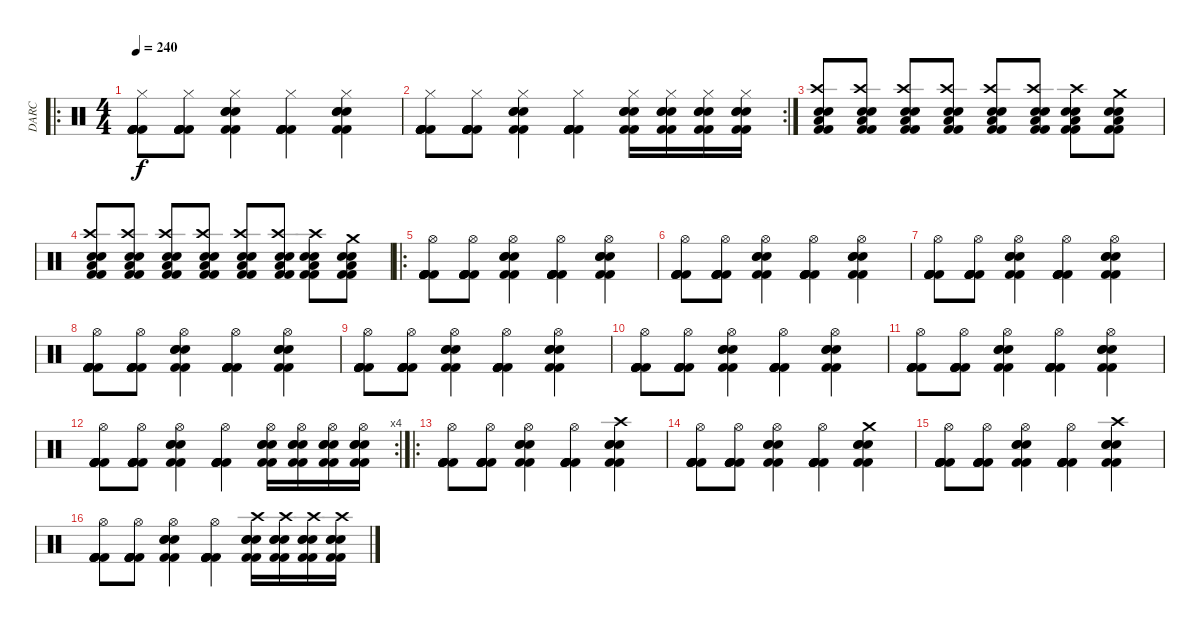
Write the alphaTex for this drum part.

\track ("DARC" "DARC") {instrument percussion}
\staff {score}
\articulation defaults
\ro
\ts (4 4)
\tempo 240
\clef neutral
\ks c
("Hi-Hat (closed)" "Kick (hit) 2" "Kick (hit) 2" "Kick (hit) 2" "Kick (hit) 2" "Kick (hit) 2").8{dy f} ("Hi-Hat (closed)" "Kick (hit) 2" "Kick (hit) 2" "Kick (hit) 2" "Kick (hit) 2" "Kick (hit) 2").8 ("Hi-Hat (closed)" "Electric Snare (hit)" "Electric Snare (hit)" "Kick (hit) 2" "Kick (hit) 2" "Electric Snare (hit)").4 ("Hi-Hat (closed)" "Kick (hit) 2" "Kick (hit) 2" "Kick (hit) 2" "Kick (hit) 2" "Kick (hit) 2").4 ("Hi-Hat (closed)" "Electric Snare (hit)" "Electric Snare (hit)" "Kick (hit) 2" "Kick (hit) 2" "Electric Snare (hit)").4 |
\rc 2
("Hi-Hat (closed)" "Kick (hit) 2" "Kick (hit) 2" "Kick (hit) 2" "Kick (hit) 2" "Kick (hit) 2").8 ("Hi-Hat (closed)" "Kick (hit) 2" "Kick (hit) 2" "Kick (hit) 2" "Kick (hit) 2" "Kick (hit) 2").8 ("Hi-Hat (closed)" "Electric Snare (hit)" "Electric Snare (hit)" "Kick (hit) 2" "Kick (hit) 2" "Electric Snare (hit)").4 ("Hi-Hat (closed)" "Kick (hit) 2" "Kick (hit) 2" "Kick (hit) 2" "Kick (hit) 2" "Kick (hit) 2").4 ("Hi-Hat (closed)" "Electric Snare (hit)" "Electric Snare (hit)" "Kick (hit) 2" "Kick (hit) 2" "Electric Snare (hit)").16 ("Hi-Hat (closed)" "Electric Snare (hit)" "Electric Snare (hit)" "Kick (hit) 2" "Kick (hit) 2" "Electric Snare (hit)").16 ("Hi-Hat (closed)" "Electric Snare (hit)" "Electric Snare (hit)" "Kick (hit) 2" "Kick (hit) 2" "Electric Snare (hit)").16 ("Hi-Hat (closed)" "Electric Snare (hit)" "Electric Snare (hit)" "Kick (hit) 2" "Kick (hit) 2" "Electric Snare (hit)").16 |
("Crash high (hit)" "Low Floor Tom (hit)" "Electric Snare (hit)" "Kick (hit) 2" "Kick (hit) 2" "Electric Snare (hit)").8 ("Crash high (hit)" "Low Floor Tom (hit)" "Electric Snare (hit)" "Kick (hit) 2" "Kick (hit) 2" "Electric Snare (hit)").8 ("Crash high (hit)" "Low Floor Tom (hit)" "Electric Snare (hit)" "Kick (hit) 2" "Kick (hit) 2" "Electric Snare (hit)").8 ("Crash high (hit)" "Low Floor Tom (hit)" "Electric Snare (hit)" "Kick (hit) 2" "Kick (hit) 2" "Electric Snare (hit)").8 ("Crash high (hit)" "Low Floor Tom (hit)" "Electric Snare (hit)" "Kick (hit) 2" "Kick (hit) 2" "Electric Snare (hit)").8 ("Crash high (hit)" "Low Floor Tom (hit)" "Electric Snare (hit)" "Kick (hit) 2" "Kick (hit) 2" "Electric Snare (hit)").8 ("Crash high (hit)" "Low Floor Tom (hit)" "Electric Snare (hit)" "Kick (hit) 2" "Kick (hit) 2" "Electric Snare (hit)").8 ("Crash medium (hit)" "Low Floor Tom (hit)" "Electric Snare (hit)" "Kick (hit) 2" "Kick (hit) 2" "Electric Snare (hit)").8 |
("Crash high (hit)" "Low Floor Tom (hit)" "Electric Snare (hit)" "Kick (hit) 2" "Kick (hit) 2" "Electric Snare (hit)").8 ("Crash high (hit)" "Low Floor Tom (hit)" "Electric Snare (hit)" "Kick (hit) 2" "Kick (hit) 2" "Electric Snare (hit)").8 ("Crash high (hit)" "Low Floor Tom (hit)" "Electric Snare (hit)" "Kick (hit) 2" "Kick (hit) 2" "Electric Snare (hit)").8 ("Crash high (hit)" "Low Floor Tom (hit)" "Electric Snare (hit)" "Kick (hit) 2" "Kick (hit) 2" "Electric Snare (hit)").8 ("Crash high (hit)" "Low Floor Tom (hit)" "Electric Snare (hit)" "Kick (hit) 2" "Kick (hit) 2" "Electric Snare (hit)").8 ("Crash high (hit)" "Low Floor Tom (hit)" "Electric Snare (hit)" "Kick (hit) 2" "Kick (hit) 2" "Electric Snare (hit)").8 ("Crash high (hit)" "Low Floor Tom (hit)" "Electric Snare (hit)" "Kick (hit) 2" "Kick (hit) 2" "Electric Snare (hit)").8 ("Crash medium (hit)" "Low Floor Tom (hit)" "Electric Snare (hit)" "Kick (hit) 2" "Kick (hit) 2" "Electric Snare (hit)").8 |
\ro
("Hi-Hat (open)" "Kick (hit) 2" "Kick (hit) 2" "Kick (hit) 2" "Kick (hit) 2" "Kick (hit) 2").8 ("Hi-Hat (open)" "Kick (hit) 2" "Kick (hit) 2" "Kick (hit) 2" "Kick (hit) 2" "Kick (hit) 2").8 ("Hi-Hat (open)" "Electric Snare (hit)" "Electric Snare (hit)" "Kick (hit) 2" "Kick (hit) 2" "Electric Snare (hit)").4 ("Hi-Hat (open)" "Kick (hit) 2" "Kick (hit) 2" "Kick (hit) 2" "Kick (hit) 2" "Kick (hit) 2").4 ("Hi-Hat (open)" "Electric Snare (hit)" "Electric Snare (hit)" "Kick (hit) 2" "Kick (hit) 2" "Electric Snare (hit)").4 |
("Hi-Hat (open)" "Kick (hit) 2" "Kick (hit) 2" "Kick (hit) 2" "Kick (hit) 2" "Kick (hit) 2").8 ("Hi-Hat (open)" "Kick (hit) 2" "Kick (hit) 2" "Kick (hit) 2" "Kick (hit) 2" "Kick (hit) 2").8 ("Hi-Hat (open)" "Electric Snare (hit)" "Electric Snare (hit)" "Kick (hit) 2" "Kick (hit) 2" "Electric Snare (hit)").4 ("Hi-Hat (open)" "Kick (hit) 2" "Kick (hit) 2" "Kick (hit) 2" "Kick (hit) 2" "Kick (hit) 2").4 ("Hi-Hat (open)" "Electric Snare (hit)" "Electric Snare (hit)" "Kick (hit) 2" "Kick (hit) 2" "Electric Snare (hit)").4 |
("Hi-Hat (open)" "Kick (hit) 2" "Kick (hit) 2" "Kick (hit) 2" "Kick (hit) 2" "Kick (hit) 2").8 ("Hi-Hat (open)" "Kick (hit) 2" "Kick (hit) 2" "Kick (hit) 2" "Kick (hit) 2" "Kick (hit) 2").8 ("Hi-Hat (open)" "Electric Snare (hit)" "Electric Snare (hit)" "Kick (hit) 2" "Kick (hit) 2" "Electric Snare (hit)").4 ("Hi-Hat (open)" "Kick (hit) 2" "Kick (hit) 2" "Kick (hit) 2" "Kick (hit) 2" "Kick (hit) 2").4 ("Hi-Hat (open)" "Electric Snare (hit)" "Electric Snare (hit)" "Kick (hit) 2" "Kick (hit) 2" "Electric Snare (hit)").4 |
("Hi-Hat (open)" "Kick (hit) 2" "Kick (hit) 2" "Kick (hit) 2" "Kick (hit) 2" "Kick (hit) 2").8 ("Hi-Hat (open)" "Kick (hit) 2" "Kick (hit) 2" "Kick (hit) 2" "Kick (hit) 2" "Kick (hit) 2").8 ("Hi-Hat (open)" "Electric Snare (hit)" "Electric Snare (hit)" "Kick (hit) 2" "Kick (hit) 2" "Electric Snare (hit)").4 ("Hi-Hat (open)" "Kick (hit) 2" "Kick (hit) 2" "Kick (hit) 2" "Kick (hit) 2" "Kick (hit) 2").4 ("Hi-Hat (open)" "Electric Snare (hit)" "Electric Snare (hit)" "Kick (hit) 2" "Kick (hit) 2" "Electric Snare (hit)").4 |
("Hi-Hat (open)" "Kick (hit) 2" "Kick (hit) 2" "Kick (hit) 2" "Kick (hit) 2" "Kick (hit) 2").8 ("Hi-Hat (open)" "Kick (hit) 2" "Kick (hit) 2" "Kick (hit) 2" "Kick (hit) 2" "Kick (hit) 2").8 ("Hi-Hat (open)" "Electric Snare (hit)" "Electric Snare (hit)" "Kick (hit) 2" "Kick (hit) 2" "Electric Snare (hit)").4 ("Hi-Hat (open)" "Kick (hit) 2" "Kick (hit) 2" "Kick (hit) 2" "Kick (hit) 2" "Kick (hit) 2").4 ("Hi-Hat (open)" "Electric Snare (hit)" "Electric Snare (hit)" "Kick (hit) 2" "Kick (hit) 2" "Electric Snare (hit)").4 |
("Hi-Hat (open)" "Kick (hit) 2" "Kick (hit) 2" "Kick (hit) 2" "Kick (hit) 2" "Kick (hit) 2").8 ("Hi-Hat (open)" "Kick (hit) 2" "Kick (hit) 2" "Kick (hit) 2" "Kick (hit) 2" "Kick (hit) 2").8 ("Hi-Hat (open)" "Electric Snare (hit)" "Electric Snare (hit)" "Kick (hit) 2" "Kick (hit) 2" "Electric Snare (hit)").4 ("Hi-Hat (open)" "Kick (hit) 2" "Kick (hit) 2" "Kick (hit) 2" "Kick (hit) 2" "Kick (hit) 2").4 ("Hi-Hat (open)" "Electric Snare (hit)" "Electric Snare (hit)" "Kick (hit) 2" "Kick (hit) 2" "Electric Snare (hit)").4 |
("Hi-Hat (open)" "Kick (hit) 2" "Kick (hit) 2" "Kick (hit) 2" "Kick (hit) 2" "Kick (hit) 2").8 ("Hi-Hat (open)" "Kick (hit) 2" "Kick (hit) 2" "Kick (hit) 2" "Kick (hit) 2" "Kick (hit) 2").8 ("Hi-Hat (open)" "Electric Snare (hit)" "Electric Snare (hit)" "Kick (hit) 2" "Kick (hit) 2" "Electric Snare (hit)").4 ("Hi-Hat (open)" "Kick (hit) 2" "Kick (hit) 2" "Kick (hit) 2" "Kick (hit) 2" "Kick (hit) 2").4 ("Hi-Hat (open)" "Electric Snare (hit)" "Electric Snare (hit)" "Kick (hit) 2" "Kick (hit) 2" "Electric Snare (hit)").4 |
\rc 4
("Hi-Hat (open)" "Kick (hit) 2" "Kick (hit) 2" "Kick (hit) 2" "Kick (hit) 2" "Kick (hit) 2").8 ("Hi-Hat (open)" "Kick (hit) 2" "Kick (hit) 2" "Kick (hit) 2" "Kick (hit) 2" "Kick (hit) 2").8 ("Hi-Hat (open)" "Electric Snare (hit)" "Electric Snare (hit)" "Kick (hit) 2" "Kick (hit) 2" "Electric Snare (hit)").4 ("Hi-Hat (open)" "Kick (hit) 2" "Kick (hit) 2" "Kick (hit) 2" "Kick (hit) 2" "Kick (hit) 2").4 ("Hi-Hat (open)" "Electric Snare (hit)" "Electric Snare (hit)" "Kick (hit) 2" "Kick (hit) 2" "Electric Snare (hit)").16 ("Hi-Hat (open)" "Electric Snare (hit)" "Electric Snare (hit)" "Kick (hit) 2" "Kick (hit) 2" "Electric Snare (hit)").16 ("Hi-Hat (open)" "Electric Snare (hit)" "Electric Snare (hit)" "Kick (hit) 2" "Kick (hit) 2" "Electric Snare (hit)").16 ("Hi-Hat (open)" "Electric Snare (hit)" "Electric Snare (hit)" "Kick (hit) 2" "Kick (hit) 2" "Electric Snare (hit)").16 |
\ro
("Hi-Hat (open)" "Kick (hit) 2" "Kick (hit) 2" "Kick (hit) 2" "Kick (hit) 2" "Kick (hit) 2").8 ("Hi-Hat (open)" "Kick (hit) 2" "Kick (hit) 2" "Kick (hit) 2" "Kick (hit) 2" "Kick (hit) 2").8 ("Hi-Hat (open)" "Electric Snare (hit)" "Electric Snare (hit)" "Kick (hit) 2" "Kick (hit) 2" "Electric Snare (hit)").4 ("Hi-Hat (open)" "Kick (hit) 2" "Kick (hit) 2" "Kick (hit) 2" "Kick (hit) 2" "Kick (hit) 2").4 ("Crash high (hit)" "Electric Snare (hit)" "Electric Snare (hit)" "Kick (hit) 2" "Kick (hit) 2" "Electric Snare (hit)").4 |
("Hi-Hat (open)" "Kick (hit) 2" "Kick (hit) 2" "Kick (hit) 2" "Kick (hit) 2" "Kick (hit) 2").8 ("Hi-Hat (open)" "Kick (hit) 2" "Kick (hit) 2" "Kick (hit) 2" "Kick (hit) 2" "Kick (hit) 2").8 ("Hi-Hat (open)" "Electric Snare (hit)" "Electric Snare (hit)" "Kick (hit) 2" "Kick (hit) 2" "Electric Snare (hit)").4 ("Hi-Hat (open)" "Kick (hit) 2" "Kick (hit) 2" "Kick (hit) 2" "Kick (hit) 2" "Kick (hit) 2").4 ("Crash medium (hit)" "Electric Snare (hit)" "Electric Snare (hit)" "Kick (hit) 2" "Kick (hit) 2" "Electric Snare (hit)").4 |
("Hi-Hat (open)" "Kick (hit) 2" "Kick (hit) 2" "Kick (hit) 2" "Kick (hit) 2" "Kick (hit) 2").8 ("Hi-Hat (open)" "Kick (hit) 2" "Kick (hit) 2" "Kick (hit) 2" "Kick (hit) 2" "Kick (hit) 2").8 ("Hi-Hat (open)" "Electric Snare (hit)" "Electric Snare (hit)" "Kick (hit) 2" "Kick (hit) 2" "Electric Snare (hit)").4 ("Hi-Hat (open)" "Kick (hit) 2" "Kick (hit) 2" "Kick (hit) 2" "Kick (hit) 2" "Kick (hit) 2").4 ("Crash high (hit)" "Electric Snare (hit)" "Electric Snare (hit)" "Kick (hit) 2" "Kick (hit) 2" "Electric Snare (hit)").4 |
("Hi-Hat (open)" "Kick (hit) 2" "Kick (hit) 2" "Kick (hit) 2" "Kick (hit) 2" "Kick (hit) 2").8 ("Hi-Hat (open)" "Kick (hit) 2" "Kick (hit) 2" "Kick (hit) 2" "Kick (hit) 2" "Kick (hit) 2").8 ("Hi-Hat (open)" "Electric Snare (hit)" "Electric Snare (hit)" "Kick (hit) 2" "Kick (hit) 2" "Electric Snare (hit)").4 ("Hi-Hat (open)" "Kick (hit) 2" "Kick (hit) 2" "Kick (hit) 2" "Kick (hit) 2" "Kick (hit) 2").4 ("Crash high (hit)" "Electric Snare (hit)" "Electric Snare (hit)" "Kick (hit) 2" "Kick (hit) 2" "Electric Snare (hit)").16 ("Crash high (hit)" "Electric Snare (hit)" "Electric Snare (hit)" "Kick (hit) 2" "Kick (hit) 2" "Electric Snare (hit)").16 ("Crash high (hit)" "Electric Snare (hit)" "Electric Snare (hit)" "Kick (hit) 2" "Kick (hit) 2" "Electric Snare (hit)").16 ("Crash high (hit)" "Electric Snare (hit)" "Electric Snare (hit)" "Kick (hit) 2" "Kick (hit) 2" "Electric Snare (hit)").16
